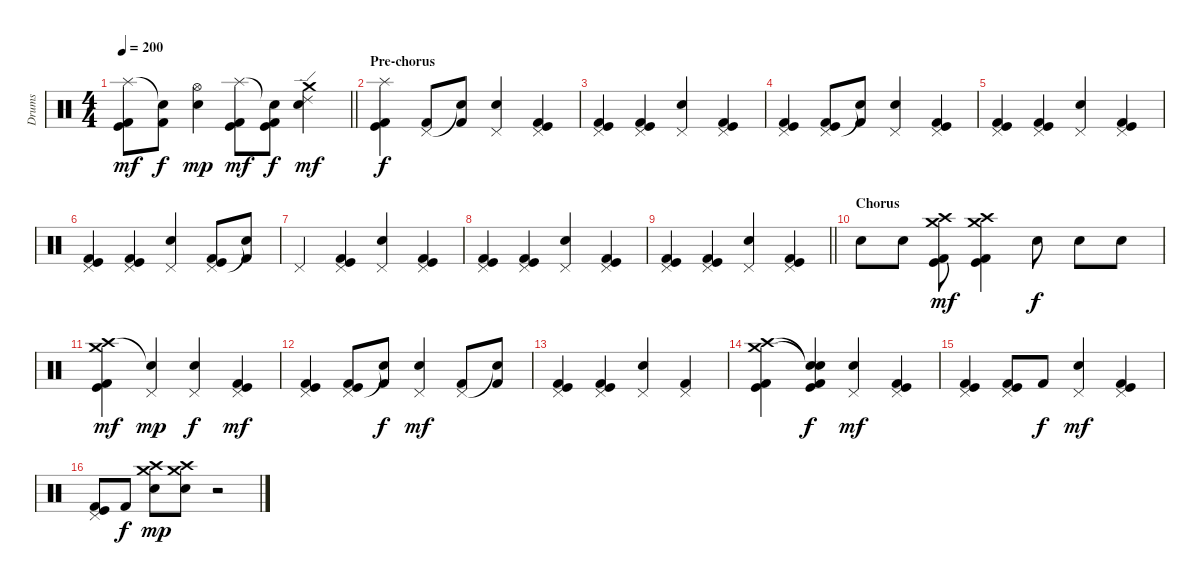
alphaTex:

\track ("Drums" "Drums") {instrument percussion}
\staff {score}
\articulation defaults
\ts (4 4)
\tempo 200
\clef neutral
\barLineRight lightlight
\ks c
("Splash (hit)" "Kick (hit)" "Kick (hit) 2").8{dy mf} ("Snare (hit)"{t} "Kick (hit) 2").8{dy f} ("Hi-Hat (open)" "Snare (hit) 2").4{dy mp} ("Splash (hit)" "Kick (hit)" "Kick (hit) 2").8{dy mf} ("Snare (hit)"{t} "Kick (hit)" "Kick (hit) 2").8{dy f} ("Ride (edge) 2" "Crash medium (hit)" "Snare (hit) 2").4{dy mf} |
\section ("" "Pre-chorus")
("Splash (hit)" "Kick (hit)" "Kick (hit) 2").4{dy f} ("Pedal Hi-Hat (hit)" "Kick (hit) 2").8 ("Snare (hit)"{t} "Kick (hit) 2").8 ("Pedal Hi-Hat (hit)" "Snare (hit) 2").4 ("Pedal Hi-Hat (hit)" "Kick (hit)" "Kick (hit) 2").4 |
("Pedal Hi-Hat (hit)" "Kick (hit)" "Kick (hit) 2").4 ("Pedal Hi-Hat (hit)" "Kick (hit)" "Kick (hit) 2").4 ("Pedal Hi-Hat (hit)" "Snare (hit) 2").4 ("Pedal Hi-Hat (hit)" "Kick (hit)" "Kick (hit) 2").4 |
("Pedal Hi-Hat (hit)" "Kick (hit)" "Kick (hit) 2").4 ("Pedal Hi-Hat (hit)" "Kick (hit)" "Kick (hit) 2").8 ("Snare (hit)"{t} "Kick (hit) 2").8 ("Pedal Hi-Hat (hit)" "Snare (hit) 2").4 ("Pedal Hi-Hat (hit)" "Kick (hit)" "Kick (hit) 2").4 |
("Pedal Hi-Hat (hit)" "Kick (hit)" "Kick (hit) 2").4 ("Pedal Hi-Hat (hit)" "Kick (hit)" "Kick (hit) 2").4 ("Pedal Hi-Hat (hit)" "Snare (hit) 2").4 ("Pedal Hi-Hat (hit)" "Kick (hit)" "Kick (hit) 2").4 |
("Pedal Hi-Hat (hit)" "Kick (hit)" "Kick (hit) 2").4 ("Pedal Hi-Hat (hit)" "Kick (hit)" "Kick (hit) 2").4 ("Pedal Hi-Hat (hit)" "Snare (hit) 2").4 ("Pedal Hi-Hat (hit)" "Kick (hit)" "Kick (hit) 2").8 ("Snare (hit)"{t} "Kick (hit) 2").8 |
"Pedal Hi-Hat (hit)".4 ("Pedal Hi-Hat (hit)" "Kick (hit)" "Kick (hit) 2").4 ("Pedal Hi-Hat (hit)" "Snare (hit) 2").4 ("Pedal Hi-Hat (hit)" "Kick (hit)" "Kick (hit) 2").4 |
("Pedal Hi-Hat (hit)" "Kick (hit)" "Kick (hit) 2").4 ("Pedal Hi-Hat (hit)" "Kick (hit)" "Kick (hit) 2").4 ("Pedal Hi-Hat (hit)" "Snare (hit) 2").4 ("Pedal Hi-Hat (hit)" "Kick (hit)" "Kick (hit) 2").4 |
\barLineRight lightlight
("Pedal Hi-Hat (hit)" "Kick (hit)" "Kick (hit) 2").4 ("Pedal Hi-Hat (hit)" "Kick (hit)" "Kick (hit) 2").4 ("Pedal Hi-Hat (hit)" "Snare (hit) 2").4 ("Pedal Hi-Hat (hit)" "Kick (hit)" "Kick (hit) 2").4 |
\section ("" "Chorus")
"Snare (hit) 2".8 "Snare (hit) 2".8 ("Crash high (hit)" "Crash medium (hit)" "Kick (hit)" "Kick (hit) 2").8{dy mf} ("Crash high (hit)" "Crash medium (hit)" "Kick (hit)" "Kick (hit) 2").4 "Snare (hit) 2".8{dy f} "Snare (hit) 2".8 "Snare (hit) 2".8 |
("Crash high (hit)" "Crash medium (hit)" "Kick (hit)" "Kick (hit) 2").4{dy mf} ("Snare (hit)"{t} "Pedal Hi-Hat (hit)").4{dy mp} ("Pedal Hi-Hat (hit)" "Snare (hit) 2").4{dy f} ("Pedal Hi-Hat (hit)" "Kick (hit)" "Kick (hit) 2").4{dy mf} |
("Pedal Hi-Hat (hit)" "Kick (hit)" "Kick (hit) 2").4 ("Pedal Hi-Hat (hit)" "Kick (hit)" "Kick (hit) 2").8 ("Snare (hit)"{t} "Kick (hit) 2").8{dy f} ("Pedal Hi-Hat (hit)" "Snare (hit) 2").4{dy mf} ("Pedal Hi-Hat (hit)" "Kick (hit) 2").8 ("Snare (hit)"{t} "Kick (hit) 2").8 |
("Pedal Hi-Hat (hit)" "Kick (hit)" "Kick (hit) 2").4 ("Pedal Hi-Hat (hit)" "Kick (hit)" "Kick (hit) 2").4 ("Pedal Hi-Hat (hit)" "Snare (hit) 2").4 ("Pedal Hi-Hat (hit)" "Kick (hit) 2").4 |
("Crash high (hit)" "Crash medium (hit)" "Kick (hit)" "Kick (hit) 2").4 ("Snare (hit)"{t} "Snare (hit)"{t} "Kick (hit)" "Kick (hit) 2").4{dy f} ("Pedal Hi-Hat (hit)" "Snare (hit) 2").4{dy mf} ("Pedal Hi-Hat (hit)" "Kick (hit)" "Kick (hit) 2").4 |
("Pedal Hi-Hat (hit)" "Kick (hit)" "Kick (hit) 2").4 ("Pedal Hi-Hat (hit)" "Kick (hit)" "Kick (hit) 2").8 "Kick (hit) 2".8{dy f} ("Pedal Hi-Hat (hit)" "Snare (hit) 2").4{dy mf} ("Pedal Hi-Hat (hit)" "Kick (hit)" "Kick (hit) 2").4 |
("Pedal Hi-Hat (hit)" "Kick (hit)" "Kick (hit) 2").8 "Kick (hit) 2".8{dy f} ("Crash high (hit)" "Crash medium (hit)" "Snare (hit) 2").8{dy mp} ("Crash high (hit)" "Crash medium (hit)" "Snare (hit) 2").8 r.2
